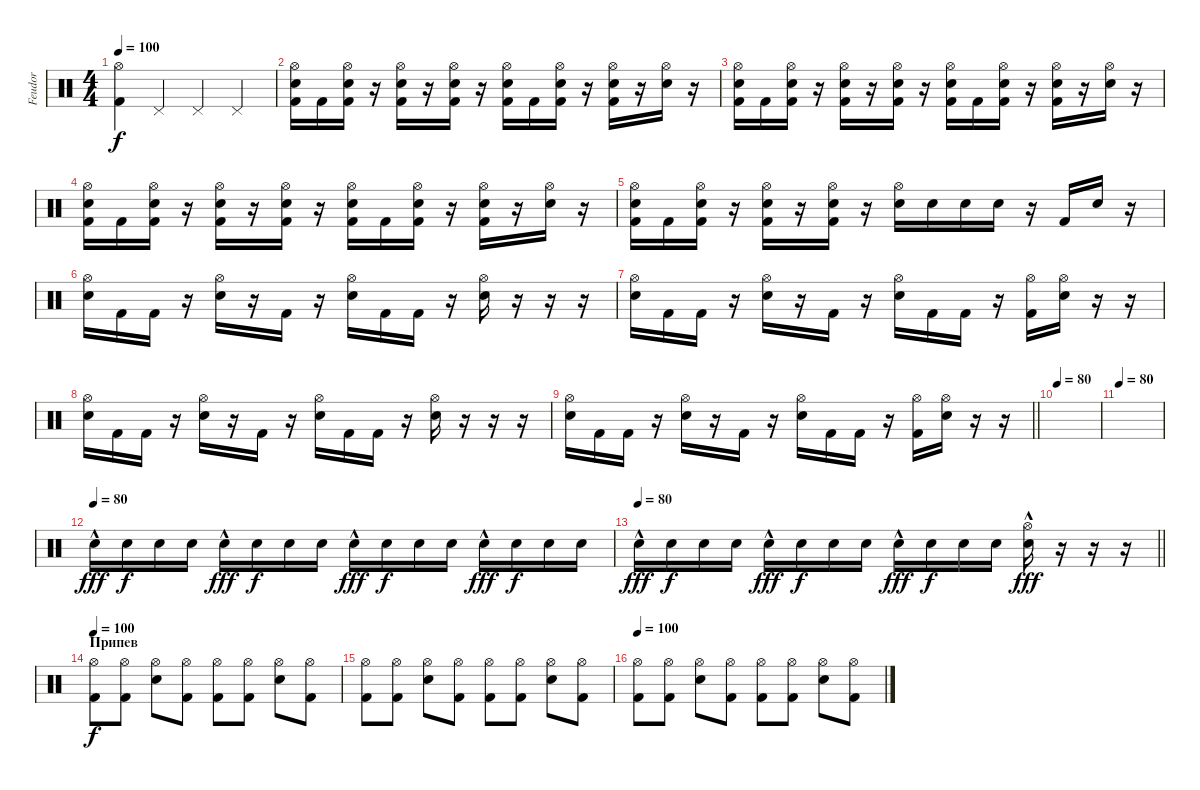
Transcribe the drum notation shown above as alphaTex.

\track ("Feudor" "Feudor") {instrument percussion}
\staff {score}
\articulation defaults
\ts (4 4)
\tempo 100
\clef neutral
\ks c
("Hi-Hat (open)" "Kick (hit) 2").4{dy f} "Pedal Hi-Hat (hit)".4 "Pedal Hi-Hat (hit)".4 "Pedal Hi-Hat (hit)".4 |
("Hi-Hat (open)" "Electric Snare (hit)" "Kick (hit) 2").16 "Kick (hit) 2".16 ("Hi-Hat (open)" "Electric Snare (hit)" "Kick (hit) 2").16 r.16 ("Hi-Hat (open)" "Electric Snare (hit)" "Kick (hit) 2").16 r.16 ("Hi-Hat (open)" "Electric Snare (hit)" "Kick (hit) 2").16 r.16 ("Hi-Hat (open)" "Electric Snare (hit)" "Kick (hit) 2").16 "Kick (hit) 2".16 ("Hi-Hat (open)" "Electric Snare (hit)" "Kick (hit) 2").16 r.16 ("Hi-Hat (open)" "Electric Snare (hit)" "Kick (hit) 2").16 r.16 ("Hi-Hat (open)" "Electric Snare (hit)").16 r.16 |
("Hi-Hat (open)" "Electric Snare (hit)" "Kick (hit) 2").16 "Kick (hit) 2".16 ("Hi-Hat (open)" "Electric Snare (hit)" "Kick (hit) 2").16 r.16 ("Hi-Hat (open)" "Electric Snare (hit)" "Kick (hit) 2").16 r.16 ("Hi-Hat (open)" "Electric Snare (hit)" "Kick (hit) 2").16 r.16 ("Hi-Hat (open)" "Electric Snare (hit)" "Kick (hit) 2").16 "Kick (hit) 2".16 ("Hi-Hat (open)" "Electric Snare (hit)" "Kick (hit) 2").16 r.16 ("Hi-Hat (open)" "Electric Snare (hit)" "Kick (hit) 2").16 r.16 ("Hi-Hat (open)" "Electric Snare (hit)").16 r.16 |
("Hi-Hat (open)" "Electric Snare (hit)" "Kick (hit) 2").16 "Kick (hit) 2".16 ("Hi-Hat (open)" "Electric Snare (hit)" "Kick (hit) 2").16 r.16 ("Hi-Hat (open)" "Electric Snare (hit)" "Kick (hit) 2").16 r.16 ("Hi-Hat (open)" "Electric Snare (hit)" "Kick (hit) 2").16 r.16 ("Hi-Hat (open)" "Electric Snare (hit)" "Kick (hit) 2").16 "Kick (hit) 2".16 ("Hi-Hat (open)" "Electric Snare (hit)" "Kick (hit) 2").16 r.16 ("Hi-Hat (open)" "Electric Snare (hit)" "Kick (hit) 2").16 r.16 ("Hi-Hat (open)" "Electric Snare (hit)").16 r.16 |
("Hi-Hat (open)" "Electric Snare (hit)" "Kick (hit) 2").16 "Kick (hit) 2".16 ("Hi-Hat (open)" "Electric Snare (hit)" "Kick (hit) 2").16 r.16 ("Hi-Hat (open)" "Electric Snare (hit)" "Kick (hit) 2").16 r.16 ("Hi-Hat (open)" "Electric Snare (hit)" "Kick (hit) 2").16 r.16 ("Hi-Hat (open)" "Electric Snare (hit)").16 "Electric Snare (hit)".16 "Electric Snare (hit)".16 "Electric Snare (hit)".16 r.16 "Kick (hit) 2".16 "Electric Snare (hit)".16 r.16 |
("Hi-Hat (open)" "Electric Snare (hit)").16 "Kick (hit) 2".16 "Kick (hit) 2".16 r.16 ("Hi-Hat (open)" "Electric Snare (hit)").16 r.16 "Kick (hit) 2".16 r.16 ("Hi-Hat (open)" "Electric Snare (hit)").16 "Kick (hit) 2".16 "Kick (hit) 2".16 r.16 ("Hi-Hat (open)" "Electric Snare (hit)").16 r.16 r.16 r.16 |
("Hi-Hat (open)" "Electric Snare (hit)").16 "Kick (hit) 2".16 "Kick (hit) 2".16 r.16 ("Hi-Hat (open)" "Electric Snare (hit)").16 r.16 "Kick (hit) 2".16 r.16 ("Hi-Hat (open)" "Electric Snare (hit)").16 "Kick (hit) 2".16 "Kick (hit) 2".16 r.16 ("Hi-Hat (open)" "Kick (hit) 2").16 ("Hi-Hat (open)" "Electric Snare (hit)").16 r.16 r.16 |
("Hi-Hat (open)" "Electric Snare (hit)").16 "Kick (hit) 2".16 "Kick (hit) 2".16 r.16 ("Hi-Hat (open)" "Electric Snare (hit)").16 r.16 "Kick (hit) 2".16 r.16 ("Hi-Hat (open)" "Electric Snare (hit)").16 "Kick (hit) 2".16 "Kick (hit) 2".16 r.16 ("Hi-Hat (open)" "Electric Snare (hit)").16 r.16 r.16 r.16 |
\barLineRight lightlight
("Hi-Hat (open)" "Electric Snare (hit)").16 "Kick (hit) 2".16 "Kick (hit) 2".16 r.16 ("Hi-Hat (open)" "Electric Snare (hit)").16 r.16 "Kick (hit) 2".16 r.16 ("Hi-Hat (open)" "Electric Snare (hit)").16 "Kick (hit) 2".16 "Kick (hit) 2".16 r.16 ("Hi-Hat (open)" "Kick (hit) 2").16 ("Hi-Hat (open)" "Electric Snare (hit)").16 r.16 r.16 |
\tempo 80
|
\tempo 80
|
\tempo (80)
"Electric Snare (hit)"{hac}.16{dy fff} "Electric Snare (hit)".16{dy f} "Electric Snare (hit)".16 "Electric Snare (hit)".16 "Electric Snare (hit)"{hac}.16{dy fff} "Electric Snare (hit)".16{dy f} "Electric Snare (hit)".16 "Electric Snare (hit)".16 "Electric Snare (hit)"{hac}.16{dy fff} "Electric Snare (hit)".16{dy f} "Electric Snare (hit)".16 "Electric Snare (hit)".16 "Electric Snare (hit)"{hac}.16{dy fff} "Electric Snare (hit)".16{dy f} "Electric Snare (hit)".16 "Electric Snare (hit)".16 |
\tempo 80
\barLineRight lightlight "Electric Snare (hit)"{hac}.16{dy fff} "Electric Snare (hit)".16{dy f} "Electric Snare (hit)".16 "Electric Snare (hit)".16 "Electric Snare (hit)"{hac}.16{dy fff} "Electric Snare (hit)".16{dy f} "Electric Snare (hit)".16 "Electric Snare (hit)".16 "Electric Snare (hit)"{hac}.16{dy fff} "Electric Snare (hit)".16{dy f} "Electric Snare (hit)".16 "Electric Snare (hit)".16
("Hi-Hat (open)" "Electric Snare (hit)"{hac}).16{dy fff} r.16 r.16 r.16 |
\section ("" "Припев")
\tempo 100
("Hi-Hat (open)" "Kick (hit) 2").8{dy f} ("Hi-Hat (open)" "Kick (hit) 2").8 ("Hi-Hat (open)" "Electric Snare (hit)").8 ("Hi-Hat (open)" "Kick (hit) 2").8 ("Hi-Hat (open)" "Kick (hit) 2").8 ("Hi-Hat (open)" "Kick (hit) 2").8 ("Hi-Hat (open)" "Electric Snare (hit)").8 ("Hi-Hat (open)" "Kick (hit) 2").8 |
("Hi-Hat (open)" "Kick (hit) 2").8 ("Hi-Hat (open)" "Kick (hit) 2").8 ("Hi-Hat (open)" "Electric Snare (hit)").8 ("Hi-Hat (open)" "Kick (hit) 2").8 ("Hi-Hat (open)" "Kick (hit) 2").8 ("Hi-Hat (open)" "Kick (hit) 2").8 ("Hi-Hat (open)" "Electric Snare (hit)").8 ("Hi-Hat (open)" "Kick (hit) 2").8 |
\tempo 100
("Hi-Hat (open)" "Kick (hit) 2").8 ("Hi-Hat (open)" "Kick (hit) 2").8 ("Hi-Hat (open)" "Electric Snare (hit)").8 ("Hi-Hat (open)" "Kick (hit) 2").8 ("Hi-Hat (open)" "Kick (hit) 2").8 ("Hi-Hat (open)" "Kick (hit) 2").8 ("Hi-Hat (open)" "Electric Snare (hit)").8 ("Hi-Hat (open)" "Kick (hit) 2").8
